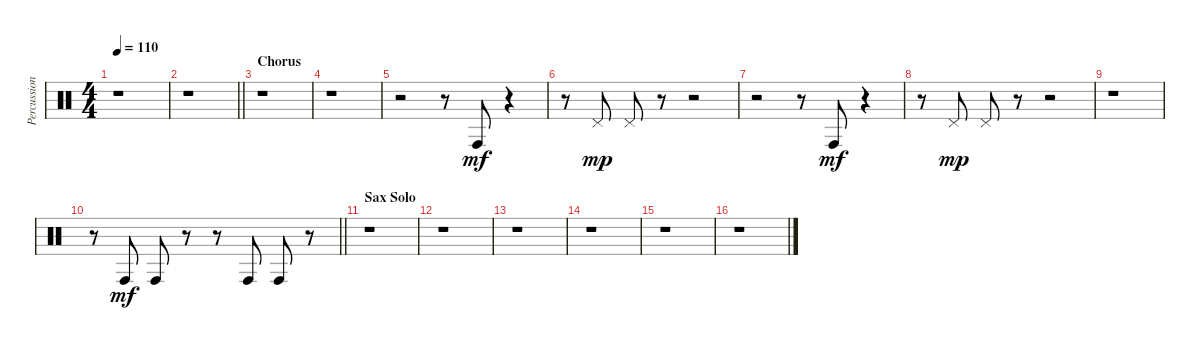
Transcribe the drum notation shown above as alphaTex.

\track ("Percussion" "Percussion") {instrument percussion}
\staff {score}
\articulation defaults
\ts (4 4)
\tempo 110
\clef neutral
\ks c
r.1{dy mf} |
\barLineRight lightlight
r.1 |
\section ("" "Chorus")
r.1 |
r.1 |
r.2 r.8{balance 1} "Conga high (hit)".8 r.4 |
r.8{balance 15} "Pedal Hi-Hat (hit)".8{dy mp} "Pedal Hi-Hat (hit)".8 r.8 r.2 |
r.2 r.8{balance 1} "Conga high (hit)".8{dy mf} r.4 |
r.8{balance 15} "Pedal Hi-Hat (hit)".8{dy mp} "Pedal Hi-Hat (hit)".8 r.8 r.2 |
r.1 |
\barLineRight lightlight
r.8{balance 1} "Conga high (hit)".8{dy mf} "Conga high (hit)".8 r.8 r.8 "Conga high (hit)".8 "Conga high (hit)".8 r.8 |
\section ("" "Sax Solo")
r.1 |
r.1 |
r.1 |
r.1 |
r.1 |
r.1
